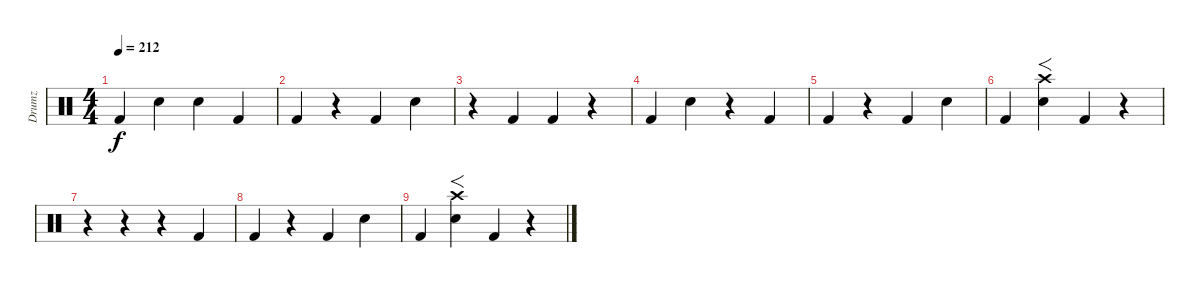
\track ("Drumz" "Drumz") {instrument percussion}
\staff {score}
\articulation defaults
\ts (4 4)
\tempo 212
\clef neutral
\ks c "Kick (hit) 2".4{dy f} "Snare (hit) 2".4 "Snare (hit) 2".4 "Kick (hit) 2".4
|
"Kick (hit) 2".4 r.4 "Kick (hit) 2".4 "Snare (hit) 2".4 |
r.4 "Kick (hit) 2".4 "Kick (hit) 2".4 r.4 |
"Kick (hit) 2".4 "Snare (hit) 2".4 r.4 "Kick (hit) 2".4 |
"Kick (hit) 2".4 r.4 "Kick (hit) 2".4 "Snare (hit) 2".4 |
"Kick (hit) 2".4 ("Snare (hit) 2" "Crash high (hit)").4{f} "Kick (hit) 2".4 r.4 |
r.4 r.4 r.4 "Kick (hit) 2".4 |
"Kick (hit) 2".4 r.4 "Kick (hit) 2".4 "Snare (hit) 2".4 |
"Kick (hit) 2".4 ("Snare (hit) 2" "Crash high (hit)").4{f} "Kick (hit) 2".4 r.4
